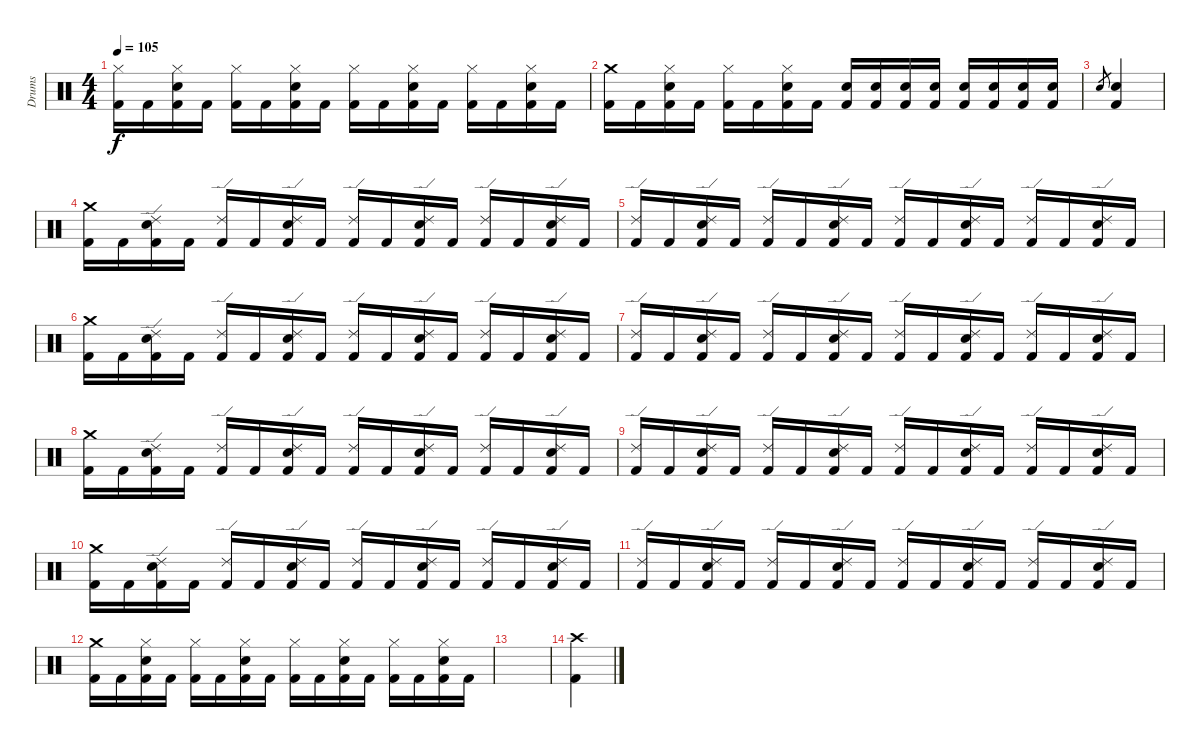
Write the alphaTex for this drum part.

\track ("Drums" "Drums") {instrument percussion}
\staff {score}
\articulation defaults
\ts (4 4)
\tempo 105
\clef neutral
\ks c
("Hi-Hat (closed)" "Kick (hit) 2").16{dy f} "Kick (hit) 2".16 ("Hi-Hat (closed)" "Electric Snare (hit)" "Kick (hit) 2").16 "Kick (hit) 2".16 ("Hi-Hat (closed)" "Kick (hit) 2").16 "Kick (hit) 2".16 ("Hi-Hat (closed)" "Electric Snare (hit)" "Kick (hit) 2").16 "Kick (hit) 2".16 ("Hi-Hat (closed)" "Kick (hit) 2").16 "Kick (hit) 2".16 ("Hi-Hat (closed)" "Electric Snare (hit)" "Kick (hit) 2").16 "Kick (hit) 2".16 ("Hi-Hat (closed)" "Kick (hit) 2").16 "Kick (hit) 2".16 ("Hi-Hat (closed)" "Electric Snare (hit)" "Kick (hit) 2").16 "Kick (hit) 2".16 |
("Crash medium (hit)" "Kick (hit) 2").16 "Kick (hit) 2".16 ("Hi-Hat (closed)" "Electric Snare (hit)" "Kick (hit) 2").16 "Kick (hit) 2".16 ("Hi-Hat (closed)" "Kick (hit) 2").16 "Kick (hit) 2".16 ("Hi-Hat (closed)" "Electric Snare (hit)" "Kick (hit) 2").16 "Kick (hit) 2".16 ("Electric Snare (hit)" "Kick (hit) 2").16 ("Electric Snare (hit)" "Kick (hit) 2").16 ("Electric Snare (hit)" "Kick (hit) 2").16 ("Electric Snare (hit)" "Kick (hit) 2").16 ("Electric Snare (hit)" "Kick (hit) 2").16 ("Electric Snare (hit)" "Kick (hit) 2").16 ("Electric Snare (hit)" "Kick (hit) 2").16 ("Electric Snare (hit)" "Kick (hit) 2").16 |
"Electric Snare (hit)".8{gr} ("Electric Snare (hit)" "Kick (hit) 2").4 |
("Crash medium (hit)" "Kick (hit) 2").16 "Kick (hit) 2".16 ("Ride (edge) 2" "Electric Snare (hit)" "Kick (hit) 2").16 "Kick (hit) 2".16 ("Ride (edge) 2" "Kick (hit) 2").16 "Kick (hit) 2".16 ("Ride (edge) 2" "Electric Snare (hit)" "Kick (hit) 2").16 "Kick (hit) 2".16 ("Ride (edge) 2" "Kick (hit) 2").16 "Kick (hit) 2".16 ("Ride (edge) 2" "Electric Snare (hit)" "Kick (hit) 2").16 "Kick (hit) 2".16 ("Ride (edge) 2" "Kick (hit) 2").16 "Kick (hit) 2".16 ("Ride (edge) 2" "Electric Snare (hit)" "Kick (hit) 2").16 "Kick (hit) 2".16 |
("Ride (edge) 2" "Kick (hit) 2").16 "Kick (hit) 2".16 ("Ride (edge) 2" "Electric Snare (hit)" "Kick (hit) 2").16 "Kick (hit) 2".16 ("Ride (edge) 2" "Kick (hit) 2").16 "Kick (hit) 2".16 ("Ride (edge) 2" "Electric Snare (hit)" "Kick (hit) 2").16 "Kick (hit) 2".16 ("Ride (edge) 2" "Kick (hit) 2").16 "Kick (hit) 2".16 ("Ride (edge) 2" "Electric Snare (hit)" "Kick (hit) 2").16 "Kick (hit) 2".16 ("Ride (edge) 2" "Kick (hit) 2").16 "Kick (hit) 2".16 ("Ride (edge) 2" "Electric Snare (hit)" "Kick (hit) 2").16 "Kick (hit) 2".16 |
("Crash medium (hit)" "Kick (hit) 2").16 "Kick (hit) 2".16 ("Ride (edge) 2" "Electric Snare (hit)" "Kick (hit) 2").16 "Kick (hit) 2".16 ("Ride (edge) 2" "Kick (hit) 2").16 "Kick (hit) 2".16 ("Ride (edge) 2" "Electric Snare (hit)" "Kick (hit) 2").16 "Kick (hit) 2".16 ("Ride (edge) 2" "Kick (hit) 2").16 "Kick (hit) 2".16 ("Ride (edge) 2" "Electric Snare (hit)" "Kick (hit) 2").16 "Kick (hit) 2".16 ("Ride (edge) 2" "Kick (hit) 2").16 "Kick (hit) 2".16 ("Ride (edge) 2" "Electric Snare (hit)" "Kick (hit) 2").16 "Kick (hit) 2".16 |
("Ride (edge) 2" "Kick (hit) 2").16 "Kick (hit) 2".16 ("Ride (edge) 2" "Electric Snare (hit)" "Kick (hit) 2").16 "Kick (hit) 2".16 ("Ride (edge) 2" "Kick (hit) 2").16 "Kick (hit) 2".16 ("Ride (edge) 2" "Electric Snare (hit)" "Kick (hit) 2").16 "Kick (hit) 2".16 ("Ride (edge) 2" "Kick (hit) 2").16 "Kick (hit) 2".16 ("Ride (edge) 2" "Electric Snare (hit)" "Kick (hit) 2").16 "Kick (hit) 2".16 ("Ride (edge) 2" "Kick (hit) 2").16 "Kick (hit) 2".16 ("Ride (edge) 2" "Electric Snare (hit)" "Kick (hit) 2").16 "Kick (hit) 2".16 |
("Crash medium (hit)" "Kick (hit) 2").16 "Kick (hit) 2".16 ("Ride (edge) 2" "Electric Snare (hit)" "Kick (hit) 2").16 "Kick (hit) 2".16 ("Ride (edge) 2" "Kick (hit) 2").16 "Kick (hit) 2".16 ("Ride (edge) 2" "Electric Snare (hit)" "Kick (hit) 2").16 "Kick (hit) 2".16 ("Ride (edge) 2" "Kick (hit) 2").16 "Kick (hit) 2".16 ("Ride (edge) 2" "Electric Snare (hit)" "Kick (hit) 2").16 "Kick (hit) 2".16 ("Ride (edge) 2" "Kick (hit) 2").16 "Kick (hit) 2".16 ("Ride (edge) 2" "Electric Snare (hit)" "Kick (hit) 2").16 "Kick (hit) 2".16 |
("Ride (edge) 2" "Kick (hit) 2").16 "Kick (hit) 2".16 ("Ride (edge) 2" "Electric Snare (hit)" "Kick (hit) 2").16 "Kick (hit) 2".16 ("Ride (edge) 2" "Kick (hit) 2").16 "Kick (hit) 2".16 ("Ride (edge) 2" "Electric Snare (hit)" "Kick (hit) 2").16 "Kick (hit) 2".16 ("Ride (edge) 2" "Kick (hit) 2").16 "Kick (hit) 2".16 ("Ride (edge) 2" "Electric Snare (hit)" "Kick (hit) 2").16 "Kick (hit) 2".16 ("Ride (edge) 2" "Kick (hit) 2").16 "Kick (hit) 2".16 ("Ride (edge) 2" "Electric Snare (hit)" "Kick (hit) 2").16 "Kick (hit) 2".16 |
("Crash medium (hit)" "Kick (hit) 2").16 "Kick (hit) 2".16 ("Ride (edge) 2" "Electric Snare (hit)" "Kick (hit) 2").16 "Kick (hit) 2".16 ("Ride (edge) 2" "Kick (hit) 2").16 "Kick (hit) 2".16 ("Ride (edge) 2" "Electric Snare (hit)" "Kick (hit) 2").16 "Kick (hit) 2".16 ("Ride (edge) 2" "Kick (hit) 2").16 "Kick (hit) 2".16 ("Ride (edge) 2" "Electric Snare (hit)" "Kick (hit) 2").16 "Kick (hit) 2".16 ("Ride (edge) 2" "Kick (hit) 2").16 "Kick (hit) 2".16 ("Ride (edge) 2" "Electric Snare (hit)" "Kick (hit) 2").16 "Kick (hit) 2".16 |
("Ride (edge) 2" "Kick (hit) 2").16 "Kick (hit) 2".16 ("Ride (edge) 2" "Electric Snare (hit)" "Kick (hit) 2").16 "Kick (hit) 2".16 ("Ride (edge) 2" "Kick (hit) 2").16 "Kick (hit) 2".16 ("Ride (edge) 2" "Electric Snare (hit)" "Kick (hit) 2").16 "Kick (hit) 2".16 ("Ride (edge) 2" "Kick (hit) 2").16 "Kick (hit) 2".16 ("Ride (edge) 2" "Electric Snare (hit)" "Kick (hit) 2").16 "Kick (hit) 2".16 ("Ride (edge) 2" "Kick (hit) 2").16 "Kick (hit) 2".16 ("Ride (edge) 2" "Electric Snare (hit)" "Kick (hit) 2").16 "Kick (hit) 2".16 |
("Crash medium (hit)" "Kick (hit) 2").16 "Kick (hit) 2".16 ("Hi-Hat (closed)" "Electric Snare (hit)" "Kick (hit) 2").16 "Kick (hit) 2".16 ("Hi-Hat (closed)" "Kick (hit) 2").16 "Kick (hit) 2".16 ("Hi-Hat (closed)" "Electric Snare (hit)" "Kick (hit) 2").16 "Kick (hit) 2".16 ("Hi-Hat (closed)" "Kick (hit) 2").16 "Kick (hit) 2".16 ("Hi-Hat (closed)" "Electric Snare (hit)" "Kick (hit) 2").16 "Kick (hit) 2".16 ("Hi-Hat (closed)" "Kick (hit) 2").16 "Kick (hit) 2".16 ("Hi-Hat (closed)" "Electric Snare (hit)" "Kick (hit) 2").16 "Kick (hit) 2".16 |
|
("Crash high (hit)" "Kick (hit) 2").4
